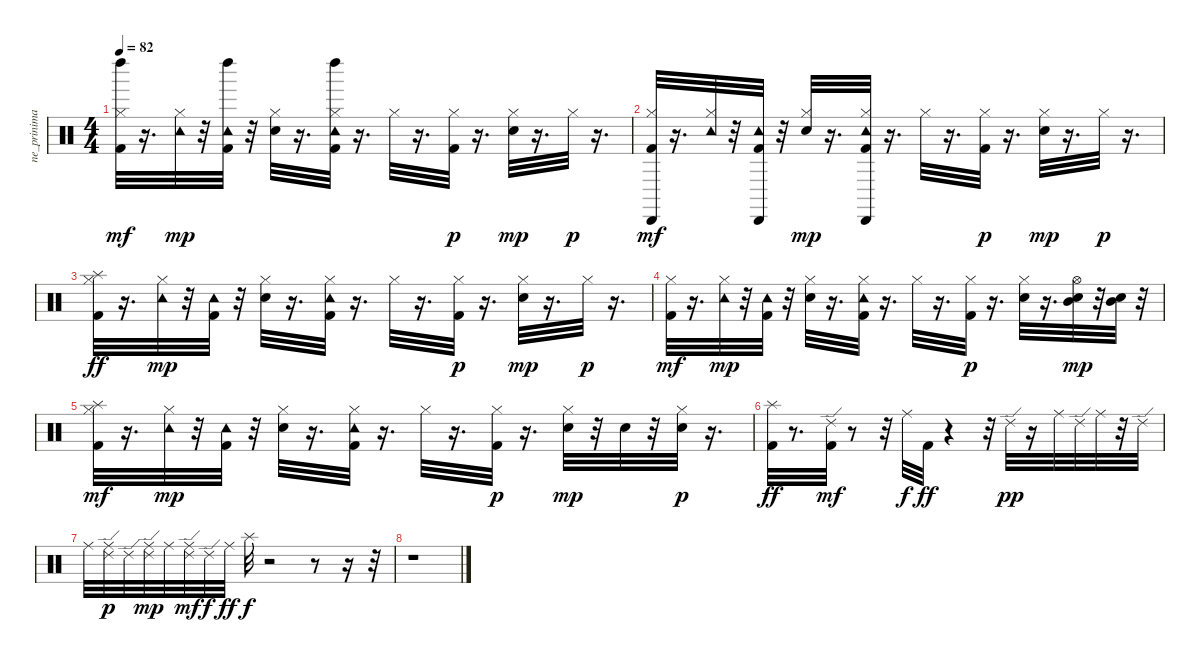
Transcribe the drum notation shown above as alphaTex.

\track ("ne_prinimai" "ne_prinima") {instrument percussion}
\staff {score}
\articulation defaults
\ts (4 4)
\tempo 82
\clef neutral
\ks c
("Kick (hit) 2" "Hi-Hat (closed)" "Left Maraca (hit)").32{dy mf} r.16{d} ("Hi-Hat (closed)" "Tambourine (hit)").32{dy mp} r.32 ("Kick (hit) 2" "Tambourine (hit)" "Left Maraca (hit)").32 r.32 ("Electric Snare (hit)" "Hi-Hat (closed)").32 r.16{d} ("Kick (hit) 2" "Hi-Hat (closed)" "Tambourine (hit)" "Left Maraca (hit)").32 r.16{d} "Hi-Hat (closed)".32 r.16{d} ("Kick (hit) 2" "Hi-Hat (closed)").32{dy p} r.16{d} ("Electric Snare (hit)" "Hi-Hat (closed)").32{dy mp} r.16{d} "Hi-Hat (closed)".32{dy p} r.16{d} |
("Kick (hit) 2" "Hi-Hat (closed)" "Cabasa (hit)").32{dy mf} r.16{d} ("Hi-Hat (closed)" "Tambourine (hit)").32 r.32 ("Kick (hit) 2" "Tambourine (hit)" "Cabasa (hit)").32 r.32 ("Electric Snare (hit)" "Hi-Hat (closed)").32{dy mp} r.16{d} ("Kick (hit) 2" "Hi-Hat (closed)" "Tambourine (hit)" "Cabasa (hit)").32 r.16{d} "Hi-Hat (closed)".32 r.16{d} ("Kick (hit) 2" "Hi-Hat (closed)").32{dy p} r.16{d} ("Snare (hit) 2" "Hi-Hat (closed)").32{dy mp} r.16{d} "Hi-Hat (closed)".32{dy p} r.16{d} |
("Kick (hit) 2" "Hi-Hat (closed)" "Splash (hit)").32{dy ff} r.16{d} ("Hi-Hat (closed)" "Tambourine (hit)").32{dy mp} r.32 ("Kick (hit) 2" "Tambourine (hit)").32 r.32 ("Electric Snare (hit)" "Hi-Hat (closed)").32 r.16{d} ("Kick (hit) 2" "Hi-Hat (closed)" "Tambourine (hit)").32 r.16{d} "Hi-Hat (closed)".32 r.16{d} ("Kick (hit) 2" "Hi-Hat (closed)").32{dy p} r.16{d} ("Electric Snare (hit)" "Hi-Hat (closed)").32{dy mp} r.16{d} "Hi-Hat (closed)".32{dy p} r.16{d} |
("Kick (hit) 2" "Hi-Hat (closed)").32{dy mf} r.16{d} ("Hi-Hat (closed)" "Tambourine (hit)").32{dy mp} r.32 ("Kick (hit) 2" "Tambourine (hit)").32 r.32 ("Electric Snare (hit)" "Hi-Hat (closed)").32 r.16{d} ("Kick (hit) 2" "Hi-Hat (closed)" "Tambourine (hit)").32 r.16{d} "Hi-Hat (closed)".32 r.16{d} ("Kick (hit) 2" "Hi-Hat (closed)").32{dy p} r.16{d} ("Electric Snare (hit)" "Hi-Hat (closed)").32 r.16{d} ("Electric Snare (hit)" "Hi-Hat (open)" "Mid Tom (hit)").32{dy mp} r.32 ("Electric Snare (hit)" "Mid Tom (hit)").32 r.32 |
("Kick (hit) 2" "Hi-Hat (closed)" "Splash (hit)").32{dy mf} r.16{d} ("Hi-Hat (closed)" "Tambourine (hit)").32{dy mp} r.32 ("Kick (hit) 2" "Tambourine (hit)").32 r.32 ("Electric Snare (hit)" "Hi-Hat (closed)").32 r.16{d} ("Kick (hit) 2" "Hi-Hat (closed)" "Tambourine (hit)").32 r.16{d} "Hi-Hat (closed)".32 r.16{d} ("Kick (hit) 2" "Hi-Hat (closed)").32{dy p} r.16{d} ("Electric Snare (hit)" "Hi-Hat (closed)").32{dy mp} r.32 "Electric Snare (hit)".32 r.32 ("Electric Snare (hit)" "Hi-Hat (closed)").32{dy p} r.16{d} |
("Kick (hit) 2" "Splash (hit)").32{dy ff} r.8{d} ("Kick (hit) 2" "Ride (edge) 2").32{dy mf} r.8 r.32 "Ride (middle)".32{dy f} "Kick (hit) 2".32{dy ff} r.4 r.32 "Ride (edge) 2".32{dy pp} r.16 "Ride (middle)".32 "Ride (edge) 2".32 "Ride (middle)".32 r.32 "Ride (edge) 2".32 |
"Ride (middle)".32 ("Ride (edge) 2" "Ride (middle)").32{dy p} "Ride (edge) 2".32 ("Ride (middle)" "Ride (edge) 2").32{dy mp} "Ride (middle)".32 ("Ride (edge) 2" "Ride (middle)").32{dy mf} "Ride (edge) 2".32{dy f} "Ride (middle)".32{dy ff} "Splash (hit)".32{dy f} r.2 r.8 r.16 r.32 |
r.1
